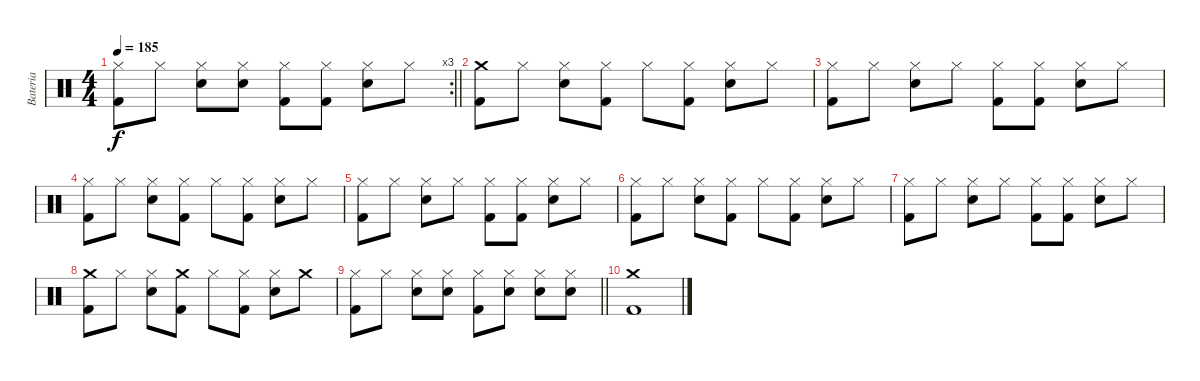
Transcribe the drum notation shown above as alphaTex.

\track ("Bateria" "Bateria") {instrument percussion}
\staff {score}
\articulation defaults
\rc 3
\ts (4 4)
\tempo 185
\clef neutral
\barLineRight lightlight
\ks c
("Hi-Hat (closed)" "Kick (hit) 2").8{dy f} "Hi-Hat (closed)".8 ("Hi-Hat (closed)" "Snare (hit) 2").8 ("Hi-Hat (closed)" "Snare (hit) 2").8 ("Hi-Hat (closed)" "Kick (hit) 2").8 ("Hi-Hat (closed)" "Kick (hit) 2").8 ("Hi-Hat (closed)" "Snare (hit) 2").8 "Hi-Hat (closed)".8 |
("Crash medium (hit)" "Kick (hit) 2").8 "Hi-Hat (closed)".8 ("Hi-Hat (closed)" "Snare (hit) 2").8 ("Hi-Hat (closed)" "Kick (hit) 2").8 "Hi-Hat (closed)".8 ("Hi-Hat (closed)" "Kick (hit) 2").8 ("Hi-Hat (closed)" "Snare (hit) 2").8 "Hi-Hat (closed)".8 |
("Hi-Hat (closed)" "Kick (hit) 2").8 "Hi-Hat (closed)".8 ("Hi-Hat (closed)" "Snare (hit) 2").8 "Hi-Hat (closed)".8 ("Hi-Hat (closed)" "Kick (hit) 2").8 ("Hi-Hat (closed)" "Kick (hit) 2").8 ("Hi-Hat (closed)" "Snare (hit) 2").8 "Hi-Hat (closed)".8 |
("Hi-Hat (closed)" "Kick (hit) 2").8 "Hi-Hat (closed)".8 ("Hi-Hat (closed)" "Snare (hit) 2").8 ("Hi-Hat (closed)" "Kick (hit) 2").8 "Hi-Hat (closed)".8 ("Hi-Hat (closed)" "Kick (hit) 2").8 ("Hi-Hat (closed)" "Snare (hit) 2").8 "Hi-Hat (closed)".8 |
("Hi-Hat (closed)" "Kick (hit) 2").8 "Hi-Hat (closed)".8 ("Hi-Hat (closed)" "Snare (hit) 2").8 "Hi-Hat (closed)".8 ("Hi-Hat (closed)" "Kick (hit) 2").8 ("Hi-Hat (closed)" "Kick (hit) 2").8 ("Hi-Hat (closed)" "Snare (hit) 2").8 "Hi-Hat (closed)".8 |
("Hi-Hat (closed)" "Kick (hit) 2").8 "Hi-Hat (closed)".8 ("Hi-Hat (closed)" "Snare (hit) 2").8 ("Hi-Hat (closed)" "Kick (hit) 2").8 "Hi-Hat (closed)".8 ("Hi-Hat (closed)" "Kick (hit) 2").8 ("Hi-Hat (closed)" "Snare (hit) 2").8 "Hi-Hat (closed)".8 |
("Hi-Hat (closed)" "Kick (hit) 2").8 "Hi-Hat (closed)".8 ("Hi-Hat (closed)" "Snare (hit) 2").8 "Hi-Hat (closed)".8 ("Hi-Hat (closed)" "Kick (hit) 2").8 ("Hi-Hat (closed)" "Kick (hit) 2").8 ("Hi-Hat (closed)" "Snare (hit) 2").8 "Hi-Hat (closed)".8 |
("Crash medium (hit)" "Kick (hit) 2").8 "Hi-Hat (closed)".8 ("Hi-Hat (closed)" "Snare (hit) 2").8 ("Crash medium (hit)" "Kick (hit) 2").8 "Hi-Hat (closed)".8 ("Hi-Hat (closed)" "Kick (hit) 2").8 ("Hi-Hat (closed)" "Snare (hit) 2").8 "Crash medium (hit)".8 |
\barLineRight lightlight
("Hi-Hat (closed)" "Kick (hit) 2").8 "Hi-Hat (closed)".8 ("Hi-Hat (closed)" "Snare (hit) 2").8 ("Hi-Hat (closed)" "Snare (hit) 2").8 ("Hi-Hat (closed)" "Kick (hit) 2").8 ("Hi-Hat (closed)" "Snare (hit) 2").8 ("Hi-Hat (closed)" "Snare (hit) 2").8 ("Hi-Hat (closed)" "Snare (hit) 2").8 |
("Crash medium (hit)" "Kick (hit) 2").1
